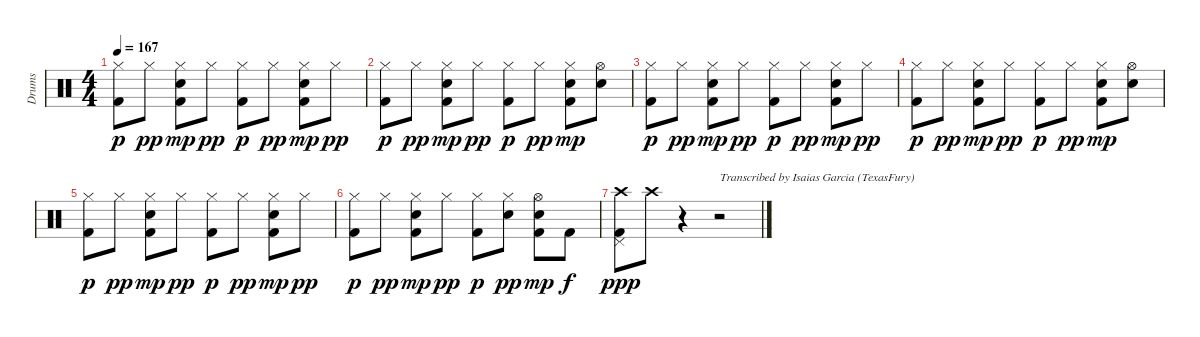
\track ("Drums" "Drums") {instrument percussion}
\staff {score}
\articulation defaults
\ts (4 4)
\tempo 167
\clef neutral
\ks aminor
("Hi-Hat (closed)" "Kick (hit) 2").8{dy p} "Hi-Hat (closed)".8{dy pp} ("Hi-Hat (closed)" "Electric Snare (hit)" "Kick (hit) 2").8{dy mp} "Hi-Hat (closed)".8{dy pp} ("Hi-Hat (closed)" "Kick (hit) 2").8{dy p} "Hi-Hat (closed)".8{dy pp} ("Hi-Hat (closed)" "Electric Snare (hit)" "Kick (hit) 2").8{dy mp} "Hi-Hat (closed)".8{dy pp} |
("Hi-Hat (closed)" "Kick (hit) 2").8{dy p} "Hi-Hat (closed)".8{dy pp} ("Hi-Hat (closed)" "Electric Snare (hit)" "Kick (hit) 2").8{dy mp} "Hi-Hat (closed)".8{dy pp} ("Hi-Hat (closed)" "Kick (hit) 2").8{dy p} "Hi-Hat (closed)".8{dy pp} ("Hi-Hat (closed)" "Electric Snare (hit)" "Kick (hit) 2").8{dy mp} ("Hi-Hat (open)" "Electric Snare (hit)").8 |
("Hi-Hat (closed)" "Kick (hit) 2").8{dy p} "Hi-Hat (closed)".8{dy pp} ("Hi-Hat (closed)" "Electric Snare (hit)" "Kick (hit) 2").8{dy mp} "Hi-Hat (closed)".8{dy pp} ("Hi-Hat (closed)" "Kick (hit) 2").8{dy p} "Hi-Hat (closed)".8{dy pp} ("Hi-Hat (closed)" "Electric Snare (hit)" "Kick (hit) 2").8{dy mp} "Hi-Hat (closed)".8{dy pp} |
("Hi-Hat (closed)" "Kick (hit) 2").8{dy p} "Hi-Hat (closed)".8{dy pp} ("Hi-Hat (closed)" "Electric Snare (hit)" "Kick (hit) 2").8{dy mp} "Hi-Hat (closed)".8{dy pp} ("Hi-Hat (closed)" "Kick (hit) 2").8{dy p} "Hi-Hat (closed)".8{dy pp} ("Hi-Hat (closed)" "Electric Snare (hit)" "Kick (hit) 2").8{dy mp} ("Hi-Hat (open)" "Electric Snare (hit)").8 |
("Hi-Hat (closed)" "Kick (hit) 2").8{dy p} "Hi-Hat (closed)".8{dy pp} ("Hi-Hat (closed)" "Electric Snare (hit)" "Kick (hit) 2").8{dy mp} "Hi-Hat (closed)".8{dy pp} ("Hi-Hat (closed)" "Kick (hit) 2").8{dy p} "Hi-Hat (closed)".8{dy pp} ("Hi-Hat (closed)" "Electric Snare (hit)" "Kick (hit) 2").8{dy mp} "Hi-Hat (closed)".8{dy pp} |
("Hi-Hat (closed)" "Kick (hit) 2").8{dy p} "Hi-Hat (closed)".8{dy pp} ("Hi-Hat (closed)" "Electric Snare (hit)" "Kick (hit) 2").8{dy mp} "Hi-Hat (closed)".8{dy pp} ("Hi-Hat (closed)" "Kick (hit) 2").8{dy p} ("Hi-Hat (closed)" "Electric Snare (hit)").8{dy pp} ("Hi-Hat (open)" "Electric Snare (hit)" "Kick (hit) 2").8{dy mp} "Kick (hit) 2".8{dy f} |
("Kick (hit) 2" "Crash high (hit)" "Pedal Hi-Hat (hit)").8{dy ppp} "Crash high (hit)".8 r.4 r.2{txt "Transcribed by Isaias Garcia (TexasFury)"}
